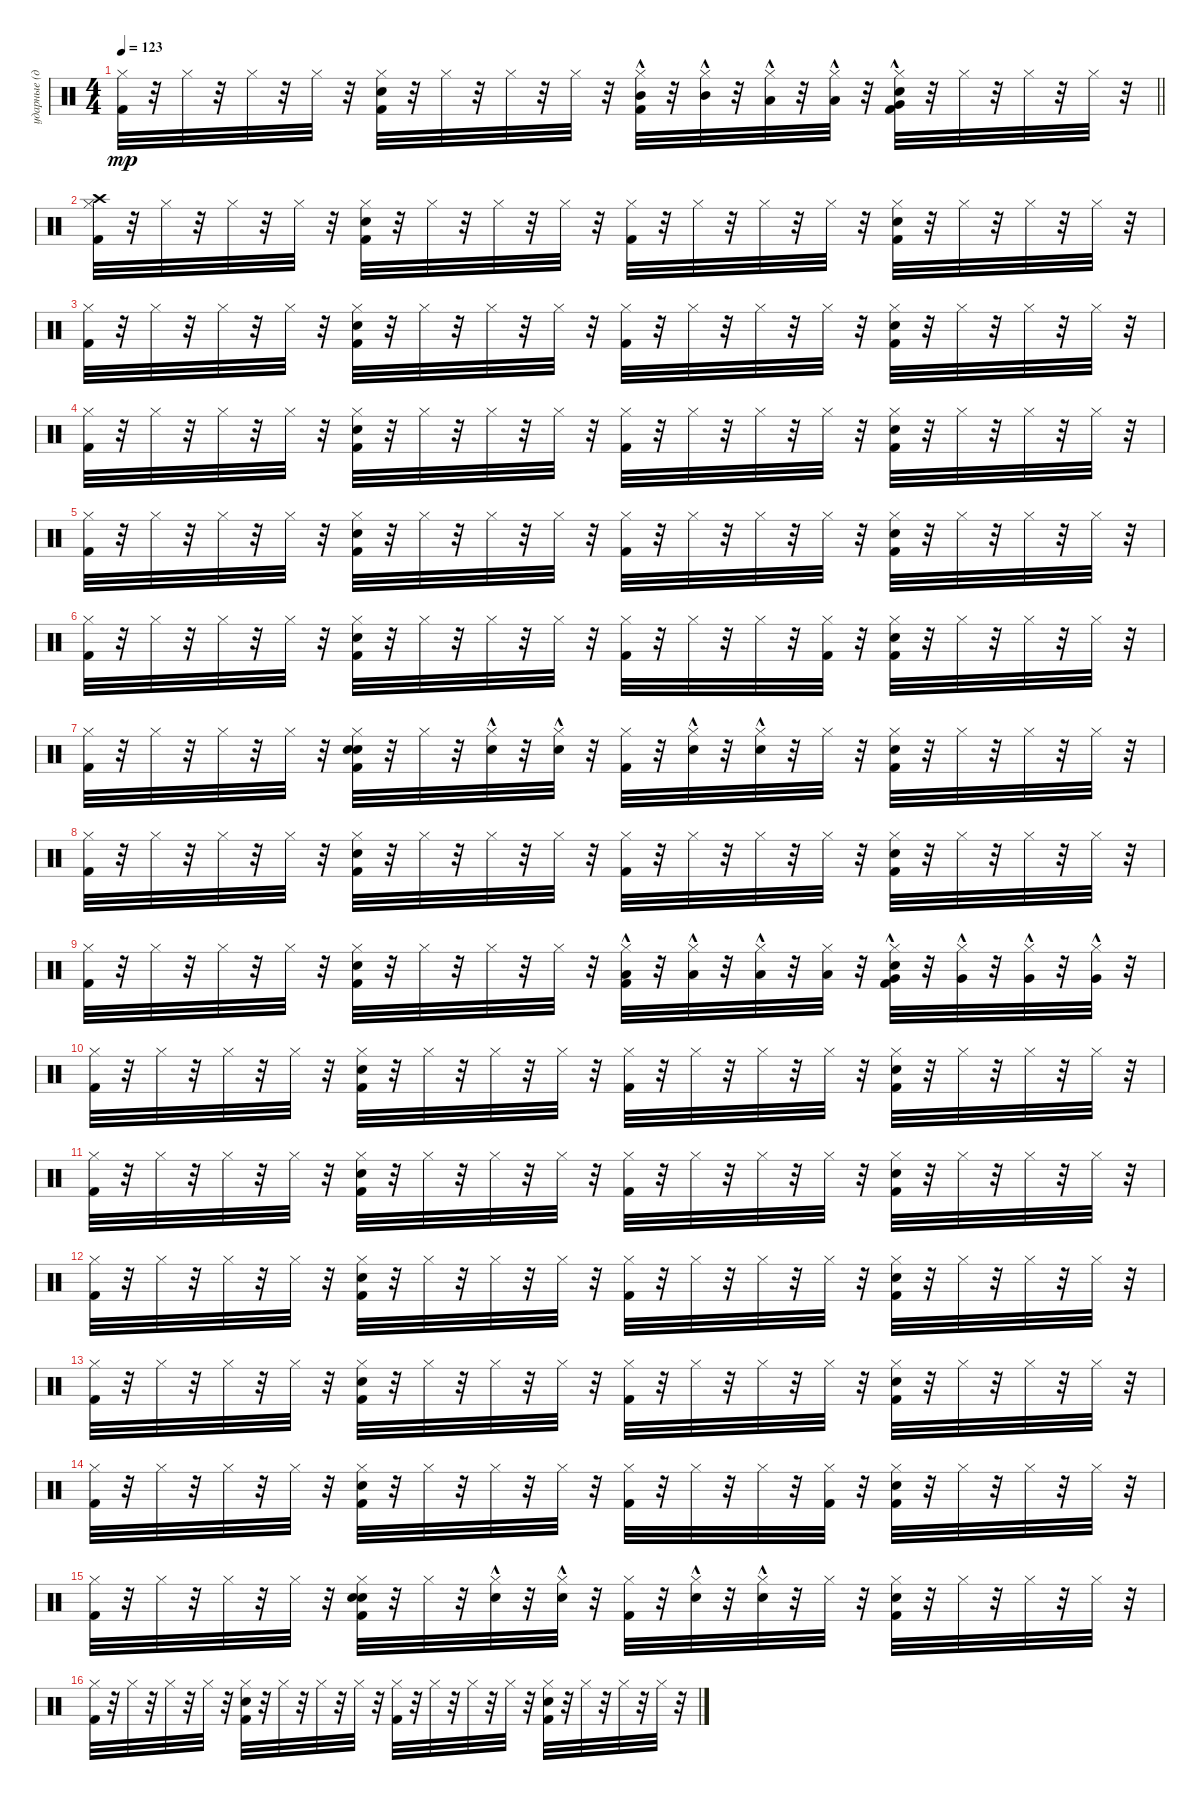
\track ("ударные (драм-машина)" "ударные (д") {instrument percussion}
\staff {score}
\articulation defaults
\ts (4 4)
\tempo 123
\clef neutral
\barLineRight lightlight
\ks c
("Kick (hit) 2" "Hi-Hat (closed)").32{dy mp} r.32 "Hi-Hat (closed)".32 r.32 "Hi-Hat (closed)".32 r.32 "Hi-Hat (closed)".32 r.32 ("Kick (hit) 2" "Snare (hit) 2" "Hi-Hat (closed)").32 r.32 "Hi-Hat (closed)".32 r.32 "Hi-Hat (closed)".32 r.32 "Hi-Hat (closed)".32 r.32 ("Mid Tom (hit)"{hac} "Kick (hit) 2" "Hi-Hat (closed)").32 r.32 ("Mid Tom (hit)"{hac} "Hi-Hat (closed)").32 r.32 ("Low Tom (hit)"{hac} "Hi-Hat (closed)").32 r.32 ("Low Tom (hit)"{hac} "Hi-Hat (closed)").32 r.32 ("Very Low Tom (hit)"{hac} "Kick (hit) 2" "Snare (hit) 2" "Hi-Hat (closed)").32 r.32 "Hi-Hat (closed)".32 r.32 "Hi-Hat (closed)".32 r.32 "Hi-Hat (closed)".32 r.32 |
("Crash high (hit)" "Kick (hit) 2" "Hi-Hat (closed)").32 r.32 "Hi-Hat (closed)".32 r.32 "Hi-Hat (closed)".32 r.32 "Hi-Hat (closed)".32 r.32 ("Kick (hit) 2" "Snare (hit) 2" "Hi-Hat (closed)").32 r.32 "Hi-Hat (closed)".32 r.32 "Hi-Hat (closed)".32 r.32 "Hi-Hat (closed)".32 r.32 ("Kick (hit) 2" "Hi-Hat (closed)").32 r.32 "Hi-Hat (closed)".32 r.32 "Hi-Hat (closed)".32 r.32 "Hi-Hat (closed)".32 r.32 ("Kick (hit) 2" "Snare (hit) 2" "Hi-Hat (closed)").32 r.32 "Hi-Hat (closed)".32 r.32 "Hi-Hat (closed)".32 r.32 "Hi-Hat (closed)".32 r.32 |
("Kick (hit) 2" "Hi-Hat (closed)").32 r.32 "Hi-Hat (closed)".32 r.32 "Hi-Hat (closed)".32 r.32 "Hi-Hat (closed)".32 r.32 ("Kick (hit) 2" "Snare (hit) 2" "Hi-Hat (closed)").32 r.32 "Hi-Hat (closed)".32 r.32 "Hi-Hat (closed)".32 r.32 "Hi-Hat (closed)".32 r.32 ("Kick (hit) 2" "Hi-Hat (closed)").32 r.32 "Hi-Hat (closed)".32 r.32 "Hi-Hat (closed)".32 r.32 "Hi-Hat (closed)".32 r.32 ("Kick (hit) 2" "Snare (hit) 2" "Hi-Hat (closed)").32 r.32 "Hi-Hat (closed)".32 r.32 "Hi-Hat (closed)".32 r.32 "Hi-Hat (closed)".32 r.32 |
("Kick (hit) 2" "Hi-Hat (closed)").32 r.32 "Hi-Hat (closed)".32 r.32 "Hi-Hat (closed)".32 r.32 "Hi-Hat (closed)".32 r.32 ("Kick (hit) 2" "Snare (hit) 2" "Hi-Hat (closed)").32 r.32 "Hi-Hat (closed)".32 r.32 "Hi-Hat (closed)".32 r.32 "Hi-Hat (closed)".32 r.32 ("Kick (hit) 2" "Hi-Hat (closed)").32 r.32 "Hi-Hat (closed)".32 r.32 "Hi-Hat (closed)".32 r.32 "Hi-Hat (closed)".32 r.32 ("Kick (hit) 2" "Snare (hit) 2" "Hi-Hat (closed)").32 r.32 "Hi-Hat (closed)".32 r.32 "Hi-Hat (closed)".32 r.32 "Hi-Hat (closed)".32 r.32 |
("Kick (hit) 2" "Hi-Hat (closed)").32 r.32 "Hi-Hat (closed)".32 r.32 "Hi-Hat (closed)".32 r.32 "Hi-Hat (closed)".32 r.32 ("Kick (hit) 2" "Snare (hit) 2" "Hi-Hat (closed)").32 r.32 "Hi-Hat (closed)".32 r.32 "Hi-Hat (closed)".32 r.32 "Hi-Hat (closed)".32 r.32 ("Kick (hit) 2" "Hi-Hat (closed)").32 r.32 "Hi-Hat (closed)".32 r.32 "Hi-Hat (closed)".32 r.32 "Hi-Hat (closed)".32 r.32 ("Kick (hit) 2" "Snare (hit) 2" "Hi-Hat (closed)").32 r.32 "Hi-Hat (closed)".32 r.32 "Hi-Hat (closed)".32 r.32 "Hi-Hat (closed)".32 r.32 |
("Kick (hit) 2" "Hi-Hat (closed)").32 r.32 "Hi-Hat (closed)".32 r.32 "Hi-Hat (closed)".32 r.32 "Hi-Hat (closed)".32 r.32 ("Kick (hit) 2" "Snare (hit) 2" "Hi-Hat (closed)").32 r.32 "Hi-Hat (closed)".32 r.32 "Hi-Hat (closed)".32 r.32 "Hi-Hat (closed)".32 r.32 ("Kick (hit) 2" "Hi-Hat (closed)").32 r.32 "Hi-Hat (closed)".32 r.32 "Hi-Hat (closed)".32 r.32 ("Kick (hit) 2" "Hi-Hat (closed)").32 r.32 ("Kick (hit) 2" "Snare (hit) 2" "Hi-Hat (closed)").32 r.32 "Hi-Hat (closed)".32 r.32 "Hi-Hat (closed)".32 r.32 "Hi-Hat (closed)".32 r.32 |
("Kick (hit) 2" "Hi-Hat (closed)").32 r.32 "Hi-Hat (closed)".32 r.32 "Hi-Hat (closed)".32 r.32 "Hi-Hat (closed)".32 r.32 ("Hand Clap (hit)" "Kick (hit) 2" "Snare (hit) 2" "Hi-Hat (closed)").32 r.32 "Hi-Hat (closed)".32 r.32 ("Hand Clap (hit)"{hac} "Hi-Hat (closed)").32 r.32 ("Hand Clap (hit)"{hac} "Hi-Hat (closed)").32 r.32 ("Kick (hit) 2" "Hi-Hat (closed)").32 r.32 ("Hand Clap (hit)"{hac} "Hi-Hat (closed)").32 r.32 ("Hand Clap (hit)"{hac} "Hi-Hat (closed)").32 r.32 "Hi-Hat (closed)".32 r.32 ("Kick (hit) 2" "Snare (hit) 2" "Hi-Hat (closed)").32 r.32 "Hi-Hat (closed)".32 r.32 "Hi-Hat (closed)".32 r.32 "Hi-Hat (closed)".32 r.32 |
("Kick (hit) 2" "Hi-Hat (closed)").32 r.32 "Hi-Hat (closed)".32 r.32 "Hi-Hat (closed)".32 r.32 "Hi-Hat (closed)".32 r.32 ("Kick (hit) 2" "Snare (hit) 2" "Hi-Hat (closed)").32 r.32 "Hi-Hat (closed)".32 r.32 "Hi-Hat (closed)".32 r.32 "Hi-Hat (closed)".32 r.32 ("Kick (hit) 2" "Hi-Hat (closed)").32 r.32 "Hi-Hat (closed)".32 r.32 "Hi-Hat (closed)".32 r.32 "Hi-Hat (closed)".32 r.32 ("Kick (hit) 2" "Snare (hit) 2" "Hi-Hat (closed)").32 r.32 "Hi-Hat (closed)".32 r.32 "Hi-Hat (closed)".32 r.32 "Hi-Hat (closed)".32 r.32 |
("Kick (hit) 2" "Hi-Hat (closed)").32 r.32 "Hi-Hat (closed)".32 r.32 "Hi-Hat (closed)".32 r.32 "Hi-Hat (closed)".32 r.32 ("Kick (hit) 2" "Snare (hit) 2" "Hi-Hat (closed)").32 r.32 "Hi-Hat (closed)".32 r.32 "Hi-Hat (closed)".32 r.32 "Hi-Hat (closed)".32 r.32 ("Low Tom (hit)"{hac} "Kick (hit) 2" "Hi-Hat (closed)").32 r.32 ("Low Tom (hit)"{hac} "Hi-Hat (closed)").32 r.32 ("Low Tom (hit)"{hac} "Hi-Hat (closed)").32 r.32 ("Low Tom (hit)" "Hi-Hat (closed)").32 r.32 ("Very Low Tom (hit)"{hac} "Kick (hit) 2" "Snare (hit) 2" "Hi-Hat (closed)").32 r.32 ("Very Low Tom (hit)"{hac} "Hi-Hat (closed)").32 r.32 ("Very Low Tom (hit)"{hac} "Hi-Hat (closed)").32 r.32 ("Very Low Tom (hit)"{hac} "Hi-Hat (closed)").32 r.32 |
("Kick (hit) 2" "Hi-Hat (closed)").32 r.32 "Hi-Hat (closed)".32 r.32 "Hi-Hat (closed)".32 r.32 "Hi-Hat (closed)".32 r.32 ("Kick (hit) 2" "Snare (hit) 2" "Hi-Hat (closed)").32 r.32 "Hi-Hat (closed)".32 r.32 "Hi-Hat (closed)".32 r.32 "Hi-Hat (closed)".32 r.32 ("Kick (hit) 2" "Hi-Hat (closed)").32 r.32 "Hi-Hat (closed)".32 r.32 "Hi-Hat (closed)".32 r.32 "Hi-Hat (closed)".32 r.32 ("Kick (hit) 2" "Snare (hit) 2" "Hi-Hat (closed)").32 r.32 "Hi-Hat (closed)".32 r.32 "Hi-Hat (closed)".32 r.32 "Hi-Hat (closed)".32 r.32 |
("Kick (hit) 2" "Hi-Hat (closed)").32 r.32 "Hi-Hat (closed)".32 r.32 "Hi-Hat (closed)".32 r.32 "Hi-Hat (closed)".32 r.32 ("Kick (hit) 2" "Snare (hit) 2" "Hi-Hat (closed)").32 r.32 "Hi-Hat (closed)".32 r.32 "Hi-Hat (closed)".32 r.32 "Hi-Hat (closed)".32 r.32 ("Kick (hit) 2" "Hi-Hat (closed)").32 r.32 "Hi-Hat (closed)".32 r.32 "Hi-Hat (closed)".32 r.32 "Hi-Hat (closed)".32 r.32 ("Kick (hit) 2" "Snare (hit) 2" "Hi-Hat (closed)").32 r.32 "Hi-Hat (closed)".32 r.32 "Hi-Hat (closed)".32 r.32 "Hi-Hat (closed)".32 r.32 |
("Kick (hit) 2" "Hi-Hat (closed)").32 r.32 "Hi-Hat (closed)".32 r.32 "Hi-Hat (closed)".32 r.32 "Hi-Hat (closed)".32 r.32 ("Kick (hit) 2" "Snare (hit) 2" "Hi-Hat (closed)").32 r.32 "Hi-Hat (closed)".32 r.32 "Hi-Hat (closed)".32 r.32 "Hi-Hat (closed)".32 r.32 ("Kick (hit) 2" "Hi-Hat (closed)").32 r.32 "Hi-Hat (closed)".32 r.32 "Hi-Hat (closed)".32 r.32 "Hi-Hat (closed)".32 r.32 ("Kick (hit) 2" "Snare (hit) 2" "Hi-Hat (closed)").32 r.32 "Hi-Hat (closed)".32 r.32 "Hi-Hat (closed)".32 r.32 "Hi-Hat (closed)".32 r.32 |
("Kick (hit) 2" "Hi-Hat (closed)").32 r.32 "Hi-Hat (closed)".32 r.32 "Hi-Hat (closed)".32 r.32 "Hi-Hat (closed)".32 r.32 ("Kick (hit) 2" "Snare (hit) 2" "Hi-Hat (closed)").32 r.32 "Hi-Hat (closed)".32 r.32 "Hi-Hat (closed)".32 r.32 "Hi-Hat (closed)".32 r.32 ("Kick (hit) 2" "Hi-Hat (closed)").32 r.32 "Hi-Hat (closed)".32 r.32 "Hi-Hat (closed)".32 r.32 "Hi-Hat (closed)".32 r.32 ("Kick (hit) 2" "Snare (hit) 2" "Hi-Hat (closed)").32 r.32 "Hi-Hat (closed)".32 r.32 "Hi-Hat (closed)".32 r.32 "Hi-Hat (closed)".32 r.32 |
("Kick (hit) 2" "Hi-Hat (closed)").32 r.32 "Hi-Hat (closed)".32 r.32 "Hi-Hat (closed)".32 r.32 "Hi-Hat (closed)".32 r.32 ("Kick (hit) 2" "Snare (hit) 2" "Hi-Hat (closed)").32 r.32 "Hi-Hat (closed)".32 r.32 "Hi-Hat (closed)".32 r.32 "Hi-Hat (closed)".32 r.32 ("Kick (hit) 2" "Hi-Hat (closed)").32 r.32 "Hi-Hat (closed)".32 r.32 "Hi-Hat (closed)".32 r.32 ("Kick (hit) 2" "Hi-Hat (closed)").32 r.32 ("Kick (hit) 2" "Snare (hit) 2" "Hi-Hat (closed)").32 r.32 "Hi-Hat (closed)".32 r.32 "Hi-Hat (closed)".32 r.32 "Hi-Hat (closed)".32 r.32 |
("Kick (hit) 2" "Hi-Hat (closed)").32 r.32 "Hi-Hat (closed)".32 r.32 "Hi-Hat (closed)".32 r.32 "Hi-Hat (closed)".32 r.32 ("Hand Clap (hit)" "Kick (hit) 2" "Snare (hit) 2" "Hi-Hat (closed)").32 r.32 "Hi-Hat (closed)".32 r.32 ("Hand Clap (hit)"{hac} "Hi-Hat (closed)").32 r.32 ("Hand Clap (hit)"{hac} "Hi-Hat (closed)").32 r.32 ("Kick (hit) 2" "Hi-Hat (closed)").32 r.32 ("Hand Clap (hit)"{hac} "Hi-Hat (closed)").32 r.32 ("Hand Clap (hit)"{hac} "Hi-Hat (closed)").32 r.32 "Hi-Hat (closed)".32 r.32 ("Kick (hit) 2" "Snare (hit) 2" "Hi-Hat (closed)").32 r.32 "Hi-Hat (closed)".32 r.32 "Hi-Hat (closed)".32 r.32 "Hi-Hat (closed)".32 r.32 |
("Kick (hit) 2" "Hi-Hat (closed)").32 r.32 "Hi-Hat (closed)".32 r.32 "Hi-Hat (closed)".32 r.32 "Hi-Hat (closed)".32 r.32 ("Kick (hit) 2" "Snare (hit) 2" "Hi-Hat (closed)").32 r.32 "Hi-Hat (closed)".32 r.32 "Hi-Hat (closed)".32 r.32 "Hi-Hat (closed)".32 r.32 ("Kick (hit) 2" "Hi-Hat (closed)").32 r.32 "Hi-Hat (closed)".32 r.32 "Hi-Hat (closed)".32 r.32 "Hi-Hat (closed)".32 r.32 ("Kick (hit) 2" "Snare (hit) 2" "Hi-Hat (closed)").32 r.32 "Hi-Hat (closed)".32 r.32 "Hi-Hat (closed)".32 r.32 "Hi-Hat (closed)".32 r.32
